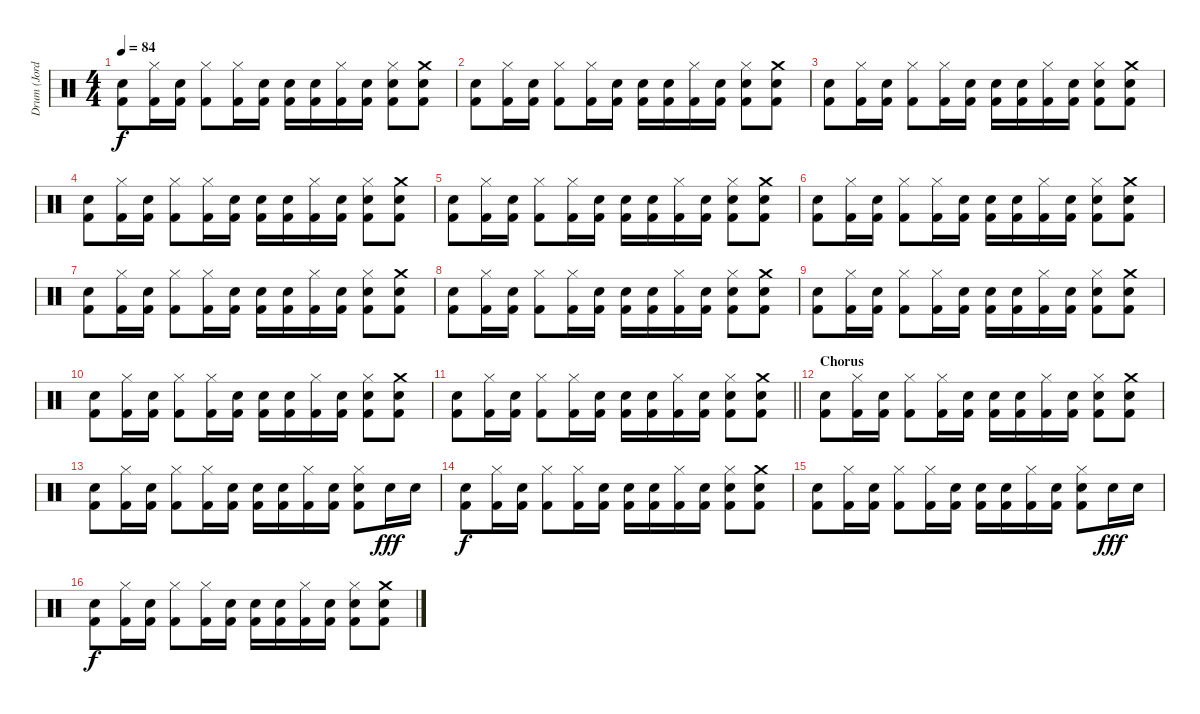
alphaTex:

\track ("Drum (Jordan)" "Drum (Jord") {instrument percussion}
\staff {score}
\articulation defaults
\ts (4 4)
\tempo 84
\clef neutral
\ks c
("Kick (hit) 2" "Electric Snare (hit)").8{dy f} ("Kick (hit) 2" "Hi-Hat (closed)").16 ("Kick (hit) 2" "Electric Snare (hit)").16 ("Kick (hit) 2" "Hi-Hat (closed)").8 ("Kick (hit) 2" "Hi-Hat (closed)").16 ("Kick (hit) 2" "Electric Snare (hit)").16 ("Kick (hit) 2" "Electric Snare (hit)").16 ("Kick (hit) 2" "Electric Snare (hit)").16 ("Kick (hit) 2" "Hi-Hat (closed)").16 ("Kick (hit) 2" "Electric Snare (hit)").16 ("Kick (hit) 2" "Electric Snare (hit)" "Hi-Hat (closed)").8 ("Kick (hit) 2" "Electric Snare (hit)" "Crash medium (hit)").8 |
("Kick (hit) 2" "Electric Snare (hit)").8 ("Kick (hit) 2" "Hi-Hat (closed)").16 ("Kick (hit) 2" "Electric Snare (hit)").16 ("Kick (hit) 2" "Hi-Hat (closed)").8 ("Kick (hit) 2" "Hi-Hat (closed)").16 ("Kick (hit) 2" "Electric Snare (hit)").16 ("Kick (hit) 2" "Electric Snare (hit)").16 ("Kick (hit) 2" "Electric Snare (hit)").16 ("Kick (hit) 2" "Hi-Hat (closed)").16 ("Kick (hit) 2" "Electric Snare (hit)").16 ("Kick (hit) 2" "Electric Snare (hit)" "Hi-Hat (closed)").8 ("Kick (hit) 2" "Electric Snare (hit)" "Crash medium (hit)").8 |
("Kick (hit) 2" "Electric Snare (hit)").8 ("Kick (hit) 2" "Hi-Hat (closed)").16 ("Kick (hit) 2" "Electric Snare (hit)").16 ("Kick (hit) 2" "Hi-Hat (closed)").8 ("Kick (hit) 2" "Hi-Hat (closed)").16 ("Kick (hit) 2" "Electric Snare (hit)").16 ("Kick (hit) 2" "Electric Snare (hit)").16 ("Kick (hit) 2" "Electric Snare (hit)").16 ("Kick (hit) 2" "Hi-Hat (closed)").16 ("Kick (hit) 2" "Electric Snare (hit)").16 ("Kick (hit) 2" "Electric Snare (hit)" "Hi-Hat (closed)").8 ("Kick (hit) 2" "Electric Snare (hit)" "Crash medium (hit)").8 |
("Kick (hit) 2" "Electric Snare (hit)").8 ("Kick (hit) 2" "Hi-Hat (closed)").16 ("Kick (hit) 2" "Electric Snare (hit)").16 ("Kick (hit) 2" "Hi-Hat (closed)").8 ("Kick (hit) 2" "Hi-Hat (closed)").16 ("Kick (hit) 2" "Electric Snare (hit)").16 ("Kick (hit) 2" "Electric Snare (hit)").16 ("Kick (hit) 2" "Electric Snare (hit)").16 ("Kick (hit) 2" "Hi-Hat (closed)").16 ("Kick (hit) 2" "Electric Snare (hit)").16 ("Kick (hit) 2" "Electric Snare (hit)" "Hi-Hat (closed)").8 ("Kick (hit) 2" "Electric Snare (hit)" "Crash medium (hit)").8 |
("Kick (hit) 2" "Electric Snare (hit)").8 ("Kick (hit) 2" "Hi-Hat (closed)").16 ("Kick (hit) 2" "Electric Snare (hit)").16 ("Kick (hit) 2" "Hi-Hat (closed)").8 ("Kick (hit) 2" "Hi-Hat (closed)").16 ("Kick (hit) 2" "Electric Snare (hit)").16 ("Kick (hit) 2" "Electric Snare (hit)").16 ("Kick (hit) 2" "Electric Snare (hit)").16 ("Kick (hit) 2" "Hi-Hat (closed)").16 ("Kick (hit) 2" "Electric Snare (hit)").16 ("Kick (hit) 2" "Electric Snare (hit)" "Hi-Hat (closed)").8 ("Kick (hit) 2" "Electric Snare (hit)" "Crash medium (hit)").8 |
("Kick (hit) 2" "Electric Snare (hit)").8 ("Kick (hit) 2" "Hi-Hat (closed)").16 ("Kick (hit) 2" "Electric Snare (hit)").16 ("Kick (hit) 2" "Hi-Hat (closed)").8 ("Kick (hit) 2" "Hi-Hat (closed)").16 ("Kick (hit) 2" "Electric Snare (hit)").16 ("Kick (hit) 2" "Electric Snare (hit)").16 ("Kick (hit) 2" "Electric Snare (hit)").16 ("Kick (hit) 2" "Hi-Hat (closed)").16 ("Kick (hit) 2" "Electric Snare (hit)").16 ("Kick (hit) 2" "Electric Snare (hit)" "Hi-Hat (closed)").8 ("Kick (hit) 2" "Electric Snare (hit)" "Crash medium (hit)").8 |
("Kick (hit) 2" "Electric Snare (hit)").8 ("Kick (hit) 2" "Hi-Hat (closed)").16 ("Kick (hit) 2" "Electric Snare (hit)").16 ("Kick (hit) 2" "Hi-Hat (closed)").8 ("Kick (hit) 2" "Hi-Hat (closed)").16 ("Kick (hit) 2" "Electric Snare (hit)").16 ("Kick (hit) 2" "Electric Snare (hit)").16 ("Kick (hit) 2" "Electric Snare (hit)").16 ("Kick (hit) 2" "Hi-Hat (closed)").16 ("Kick (hit) 2" "Electric Snare (hit)").16 ("Kick (hit) 2" "Electric Snare (hit)" "Hi-Hat (closed)").8 ("Kick (hit) 2" "Electric Snare (hit)" "Crash medium (hit)").8 |
("Kick (hit) 2" "Electric Snare (hit)").8 ("Kick (hit) 2" "Hi-Hat (closed)").16 ("Kick (hit) 2" "Electric Snare (hit)").16 ("Kick (hit) 2" "Hi-Hat (closed)").8 ("Kick (hit) 2" "Hi-Hat (closed)").16 ("Kick (hit) 2" "Electric Snare (hit)").16 ("Kick (hit) 2" "Electric Snare (hit)").16 ("Kick (hit) 2" "Electric Snare (hit)").16 ("Kick (hit) 2" "Hi-Hat (closed)").16 ("Kick (hit) 2" "Electric Snare (hit)").16 ("Kick (hit) 2" "Electric Snare (hit)" "Hi-Hat (closed)").8 ("Kick (hit) 2" "Electric Snare (hit)" "Crash medium (hit)").8 |
("Kick (hit) 2" "Electric Snare (hit)").8 ("Kick (hit) 2" "Hi-Hat (closed)").16 ("Kick (hit) 2" "Electric Snare (hit)").16 ("Kick (hit) 2" "Hi-Hat (closed)").8 ("Kick (hit) 2" "Hi-Hat (closed)").16 ("Kick (hit) 2" "Electric Snare (hit)").16 ("Kick (hit) 2" "Electric Snare (hit)").16 ("Kick (hit) 2" "Electric Snare (hit)").16 ("Kick (hit) 2" "Hi-Hat (closed)").16 ("Kick (hit) 2" "Electric Snare (hit)").16 ("Kick (hit) 2" "Electric Snare (hit)" "Hi-Hat (closed)").8 ("Kick (hit) 2" "Electric Snare (hit)" "Crash medium (hit)").8 |
("Kick (hit) 2" "Electric Snare (hit)").8 ("Kick (hit) 2" "Hi-Hat (closed)").16 ("Kick (hit) 2" "Electric Snare (hit)").16 ("Kick (hit) 2" "Hi-Hat (closed)").8 ("Kick (hit) 2" "Hi-Hat (closed)").16 ("Kick (hit) 2" "Electric Snare (hit)").16 ("Kick (hit) 2" "Electric Snare (hit)").16 ("Kick (hit) 2" "Electric Snare (hit)").16 ("Kick (hit) 2" "Hi-Hat (closed)").16 ("Kick (hit) 2" "Electric Snare (hit)").16 ("Kick (hit) 2" "Electric Snare (hit)" "Hi-Hat (closed)").8 ("Kick (hit) 2" "Electric Snare (hit)" "Crash medium (hit)").8 |
\barLineRight lightlight
("Kick (hit) 2" "Electric Snare (hit)").8 ("Kick (hit) 2" "Hi-Hat (closed)").16 ("Kick (hit) 2" "Electric Snare (hit)").16 ("Kick (hit) 2" "Hi-Hat (closed)").8 ("Kick (hit) 2" "Hi-Hat (closed)").16 ("Kick (hit) 2" "Electric Snare (hit)").16 ("Kick (hit) 2" "Electric Snare (hit)").16 ("Kick (hit) 2" "Electric Snare (hit)").16 ("Kick (hit) 2" "Hi-Hat (closed)").16 ("Kick (hit) 2" "Electric Snare (hit)").16 ("Kick (hit) 2" "Electric Snare (hit)" "Hi-Hat (closed)").8 ("Kick (hit) 2" "Electric Snare (hit)" "Crash medium (hit)").8 |
\section ("" "Chorus")
("Kick (hit) 2" "Electric Snare (hit)").8 ("Kick (hit) 2" "Hi-Hat (closed)").16 ("Kick (hit) 2" "Electric Snare (hit)").16 ("Kick (hit) 2" "Hi-Hat (closed)").8 ("Kick (hit) 2" "Hi-Hat (closed)").16 ("Kick (hit) 2" "Electric Snare (hit)").16 ("Kick (hit) 2" "Electric Snare (hit)").16 ("Kick (hit) 2" "Electric Snare (hit)").16 ("Kick (hit) 2" "Hi-Hat (closed)").16 ("Kick (hit) 2" "Electric Snare (hit)").16 ("Kick (hit) 2" "Electric Snare (hit)" "Hi-Hat (closed)").8 ("Kick (hit) 2" "Electric Snare (hit)" "Crash medium (hit)").8 |
("Kick (hit) 2" "Electric Snare (hit)").8 ("Kick (hit) 2" "Hi-Hat (closed)").16 ("Kick (hit) 2" "Electric Snare (hit)").16 ("Kick (hit) 2" "Hi-Hat (closed)").8 ("Kick (hit) 2" "Hi-Hat (closed)").16 ("Kick (hit) 2" "Electric Snare (hit)").16 ("Kick (hit) 2" "Electric Snare (hit)").16 ("Kick (hit) 2" "Electric Snare (hit)").16 ("Kick (hit) 2" "Hi-Hat (closed)").16 ("Kick (hit) 2" "Electric Snare (hit)").16 ("Kick (hit) 2" "Electric Snare (hit)" "Hi-Hat (closed)").8 "Electric Snare (hit)".16{dy fff} "Electric Snare (hit)".16 |
("Kick (hit) 2" "Electric Snare (hit)").8{dy f} ("Kick (hit) 2" "Hi-Hat (closed)").16 ("Kick (hit) 2" "Electric Snare (hit)").16 ("Kick (hit) 2" "Hi-Hat (closed)").8 ("Kick (hit) 2" "Hi-Hat (closed)").16 ("Kick (hit) 2" "Electric Snare (hit)").16 ("Kick (hit) 2" "Electric Snare (hit)").16 ("Kick (hit) 2" "Electric Snare (hit)").16 ("Kick (hit) 2" "Hi-Hat (closed)").16 ("Kick (hit) 2" "Electric Snare (hit)").16 ("Kick (hit) 2" "Electric Snare (hit)" "Hi-Hat (closed)").8 ("Kick (hit) 2" "Electric Snare (hit)" "Crash medium (hit)").8 |
("Kick (hit) 2" "Electric Snare (hit)").8 ("Kick (hit) 2" "Hi-Hat (closed)").16 ("Kick (hit) 2" "Electric Snare (hit)").16 ("Kick (hit) 2" "Hi-Hat (closed)").8 ("Kick (hit) 2" "Hi-Hat (closed)").16 ("Kick (hit) 2" "Electric Snare (hit)").16 ("Kick (hit) 2" "Electric Snare (hit)").16 ("Kick (hit) 2" "Electric Snare (hit)").16 ("Kick (hit) 2" "Hi-Hat (closed)").16 ("Kick (hit) 2" "Electric Snare (hit)").16 ("Kick (hit) 2" "Electric Snare (hit)" "Hi-Hat (closed)").8 "Electric Snare (hit)".16{dy fff} "Electric Snare (hit)".16 |
("Kick (hit) 2" "Electric Snare (hit)").8{dy f} ("Kick (hit) 2" "Hi-Hat (closed)").16 ("Kick (hit) 2" "Electric Snare (hit)").16 ("Kick (hit) 2" "Hi-Hat (closed)").8 ("Kick (hit) 2" "Hi-Hat (closed)").16 ("Kick (hit) 2" "Electric Snare (hit)").16 ("Kick (hit) 2" "Electric Snare (hit)").16 ("Kick (hit) 2" "Electric Snare (hit)").16 ("Kick (hit) 2" "Hi-Hat (closed)").16 ("Kick (hit) 2" "Electric Snare (hit)").16 ("Kick (hit) 2" "Electric Snare (hit)" "Hi-Hat (closed)").8 ("Kick (hit) 2" "Electric Snare (hit)" "Crash medium (hit)").8
